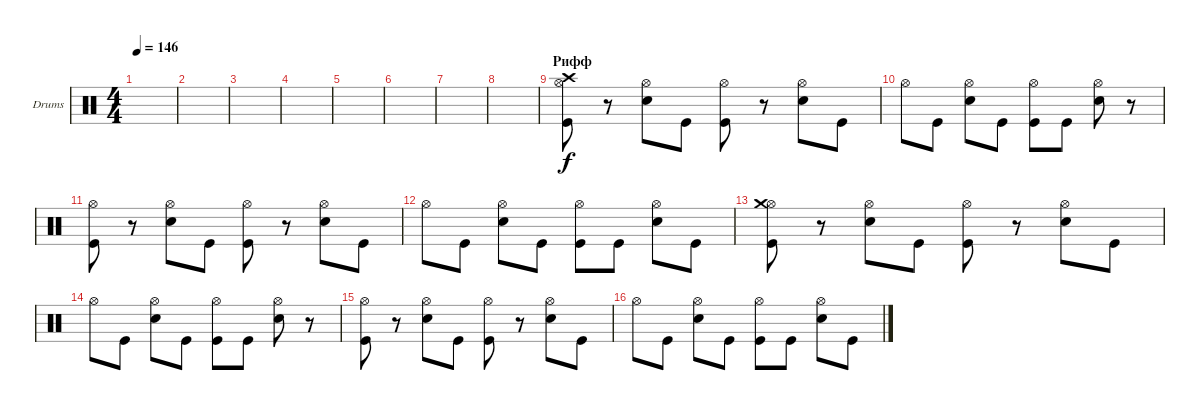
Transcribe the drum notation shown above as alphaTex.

\defaultSystemsLayout 4
\bracketExtendMode groupsimilarinstruments
\firstSystemTrackNameOrientation horizontal
\otherSystemsTrackNameOrientation horizontal
\track ("Drumkit" "Drums") {instrument percussion}
\staff {score}
\articulation defaults
\ts (4 4)
\tempo 146
\clef neutral
\scale
0.474178
\ks c
|
\scale
0.262911 |
\scale
0.262911 |
\scale
0.333333 |
\scale
0.333333 |
\scale
0.333333 |
\scale
0.333333 |
\scale
0.333333 |
\section ("" "Рифф")
\scale
0.333333 ("Kick (hit)" "Hi-Hat (open)" "Crash high (hit)").8 r.8 ("Snare (hit) 2" "Hi-Hat (open)").8 "Kick (hit)".8 ("Kick (hit)" "Hi-Hat (open)").8 r.8 ("Snare (hit) 2" "Hi-Hat (open)").8 "Kick (hit)".8 |
\scale
0.333333 "Hi-Hat (open)".8 "Kick (hit)".8 ("Snare (hit) 2" "Hi-Hat (open)").8 "Kick (hit)".8 ("Hi-Hat (open)" "Kick (hit)").8 "Kick (hit)".8 ("Snare (hit) 2" "Hi-Hat (open)").8 r.8 |
\scale
0.333333 ("Kick (hit)" "Hi-Hat (open)").8 r.8 ("Snare (hit) 2" "Hi-Hat (open)").8 "Kick (hit)".8 ("Kick (hit)" "Hi-Hat (open)").8 r.8 ("Snare (hit) 2" "Hi-Hat (open)").8 "Kick (hit)".8 |
\scale
0.333333 "Hi-Hat (open)".8 "Kick (hit)".8 ("Snare (hit) 2" "Hi-Hat (open)").8 "Kick (hit)".8 ("Hi-Hat (open)" "Kick (hit)").8 "Kick (hit)".8 ("Snare (hit) 2" "Hi-Hat (open)").8 "Kick (hit)".8 |
\scale
0.333333 ("Kick (hit)" "Hi-Hat (open)" "Crash medium (hit)").8 r.8 ("Snare (hit) 2" "Hi-Hat (open)").8 "Kick (hit)".8 ("Kick (hit)" "Hi-Hat (open)").8 r.8 ("Snare (hit) 2" "Hi-Hat (open)").8 "Kick (hit)".8 |
\scale
0.333333 "Hi-Hat (open)".8 "Kick (hit)".8 ("Snare (hit) 2" "Hi-Hat (open)").8 "Kick (hit)".8 ("Hi-Hat (open)" "Kick (hit)").8 "Kick (hit)".8 ("Snare (hit) 2" "Hi-Hat (open)").8 r.8 |
\scale
0.333333 ("Kick (hit)" "Hi-Hat (open)").8 r.8 ("Snare (hit) 2" "Hi-Hat (open)").8 "Kick (hit)".8 ("Kick (hit)" "Hi-Hat (open)").8 r.8 ("Snare (hit) 2" "Hi-Hat (open)").8 "Kick (hit)".8 |
"Hi-Hat (open)".8 "Kick (hit)".8 ("Snare (hit) 2" "Hi-Hat (open)").8 "Kick (hit)".8 ("Hi-Hat (open)" "Kick (hit)").8 "Kick (hit)".8 ("Snare (hit) 2" "Hi-Hat (open)").8 "Kick (hit)".8
